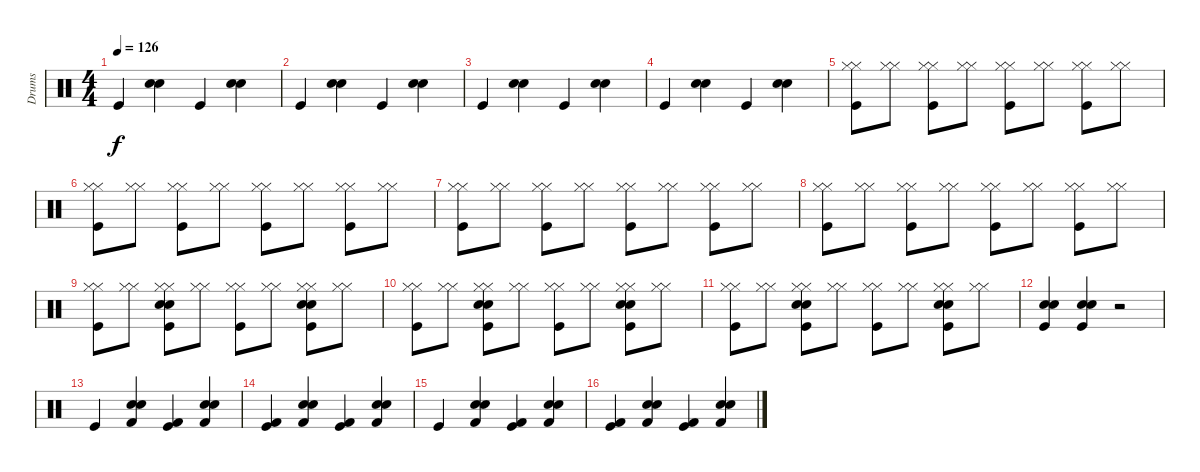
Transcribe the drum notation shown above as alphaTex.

\track ("Drums" "Drums") {instrument percussion}
\staff {score}
\articulation defaults
\ts (4 4)
\tempo 126
\clef neutral
\ks c "Kick (hit)".4{dy f}
("Snare (hit) 2" "Hand Clap (hit)").4 "Kick (hit)".4 ("Snare (hit) 2" "Hand Clap (hit)").4 |
"Kick (hit)".4 ("Snare (hit) 2" "Hand Clap (hit)").4 "Kick (hit)".4 ("Snare (hit) 2" "Hand Clap (hit)").4 |
"Kick (hit)".4 ("Snare (hit) 2" "Hand Clap (hit)").4 "Kick (hit)".4 ("Snare (hit) 2" "Hand Clap (hit)").4 |
"Kick (hit)".4 ("Snare (hit) 2" "Hand Clap (hit)").4 "Kick (hit)".4 ("Snare (hit) 2" "Hand Clap (hit)").4 |
("Kick (hit)" "Hi-Hat (closed)" "Hi-Hat (closed)").8 ("Hi-Hat (closed)" "Hi-Hat (closed)").8 ("Kick (hit)" "Hi-Hat (closed)" "Hi-Hat (closed)").8 ("Hi-Hat (closed)" "Hi-Hat (closed)").8 ("Kick (hit)" "Hi-Hat (closed)" "Hi-Hat (closed)").8 ("Hi-Hat (closed)" "Hi-Hat (closed)").8 ("Kick (hit)" "Hi-Hat (closed)" "Hi-Hat (closed)").8 ("Hi-Hat (closed)" "Hi-Hat (closed)").8 |
("Kick (hit)" "Hi-Hat (closed)" "Hi-Hat (closed)").8 ("Hi-Hat (closed)" "Hi-Hat (closed)").8 ("Kick (hit)" "Hi-Hat (closed)" "Hi-Hat (closed)").8 ("Hi-Hat (closed)" "Hi-Hat (closed)").8 ("Kick (hit)" "Hi-Hat (closed)" "Hi-Hat (closed)").8 ("Hi-Hat (closed)" "Hi-Hat (closed)").8 ("Kick (hit)" "Hi-Hat (closed)" "Hi-Hat (closed)").8 ("Hi-Hat (closed)" "Hi-Hat (closed)").8 |
("Kick (hit)" "Hi-Hat (closed)" "Hi-Hat (closed)").8 ("Hi-Hat (closed)" "Hi-Hat (closed)").8 ("Kick (hit)" "Hi-Hat (closed)" "Hi-Hat (closed)").8 ("Hi-Hat (closed)" "Hi-Hat (closed)").8 ("Kick (hit)" "Hi-Hat (closed)" "Hi-Hat (closed)").8 ("Hi-Hat (closed)" "Hi-Hat (closed)").8 ("Kick (hit)" "Hi-Hat (closed)" "Hi-Hat (closed)").8 ("Hi-Hat (closed)" "Hi-Hat (closed)").8 |
("Kick (hit)" "Hi-Hat (closed)" "Hi-Hat (closed)").8 ("Hi-Hat (closed)" "Hi-Hat (closed)").8 ("Kick (hit)" "Hi-Hat (closed)" "Hi-Hat (closed)").8 ("Hi-Hat (closed)" "Hi-Hat (closed)").8 ("Kick (hit)" "Hi-Hat (closed)" "Hi-Hat (closed)").8 ("Hi-Hat (closed)" "Hi-Hat (closed)").8 ("Kick (hit)" "Hi-Hat (closed)" "Hi-Hat (closed)").8 ("Hi-Hat (closed)" "Hi-Hat (closed)").8 |
("Kick (hit)" "Hi-Hat (closed)" "Hi-Hat (closed)").8 ("Hi-Hat (closed)" "Hi-Hat (closed)").8 ("Kick (hit)" "Hi-Hat (closed)" "Snare (hit) 2" "Hand Clap (hit)" "Hi-Hat (closed)").8 ("Hi-Hat (closed)" "Hi-Hat (closed)").8 ("Kick (hit)" "Hi-Hat (closed)" "Hi-Hat (closed)").8 ("Hi-Hat (closed)" "Hi-Hat (closed)").8 ("Kick (hit)" "Hi-Hat (closed)" "Snare (hit) 2" "Hand Clap (hit)" "Hi-Hat (closed)").8 ("Hi-Hat (closed)" "Hi-Hat (closed)").8 |
("Kick (hit)" "Hi-Hat (closed)" "Hi-Hat (closed)").8 ("Hi-Hat (closed)" "Hi-Hat (closed)").8 ("Kick (hit)" "Hi-Hat (closed)" "Snare (hit) 2" "Hand Clap (hit)" "Hi-Hat (closed)").8 ("Hi-Hat (closed)" "Hi-Hat (closed)").8 ("Kick (hit)" "Hi-Hat (closed)" "Hi-Hat (closed)").8 ("Hi-Hat (closed)" "Hi-Hat (closed)").8 ("Kick (hit)" "Hi-Hat (closed)" "Snare (hit) 2" "Hand Clap (hit)" "Hi-Hat (closed)").8 ("Hi-Hat (closed)" "Hi-Hat (closed)").8 |
("Kick (hit)" "Hi-Hat (closed)" "Hi-Hat (closed)").8 ("Hi-Hat (closed)" "Hi-Hat (closed)").8 ("Kick (hit)" "Hi-Hat (closed)" "Snare (hit) 2" "Hand Clap (hit)" "Hi-Hat (closed)").8 ("Hi-Hat (closed)" "Hi-Hat (closed)").8 ("Kick (hit)" "Hi-Hat (closed)" "Hi-Hat (closed)").8 ("Hi-Hat (closed)" "Hi-Hat (closed)").8 ("Kick (hit)" "Hi-Hat (closed)" "Snare (hit) 2" "Hand Clap (hit)" "Hi-Hat (closed)").8 ("Hi-Hat (closed)" "Hi-Hat (closed)").8 |
("Kick (hit)" "Snare (hit) 2" "Hand Clap (hit)").4 ("Kick (hit)" "Snare (hit) 2" "Hand Clap (hit)").4 r.2 |
"Kick (hit)".4 ("Snare (hit) 2" "Hand Clap (hit)" "Kick (hit) 2").4 ("Kick (hit)" "Kick (hit) 2").4 ("Snare (hit) 2" "Hand Clap (hit)" "Kick (hit) 2").4 |
("Kick (hit)" "Kick (hit) 2").4 ("Snare (hit) 2" "Hand Clap (hit)" "Kick (hit) 2").4 ("Kick (hit)" "Kick (hit) 2").4 ("Snare (hit) 2" "Hand Clap (hit)" "Kick (hit) 2").4 |
"Kick (hit)".4 ("Snare (hit) 2" "Hand Clap (hit)" "Kick (hit) 2").4 ("Kick (hit)" "Kick (hit) 2").4 ("Snare (hit) 2" "Hand Clap (hit)" "Kick (hit) 2").4 |
("Kick (hit)" "Kick (hit) 2").4 ("Snare (hit) 2" "Hand Clap (hit)" "Kick (hit) 2").4 ("Kick (hit)" "Kick (hit) 2").4 ("Snare (hit) 2" "Hand Clap (hit)" "Kick (hit) 2").4
